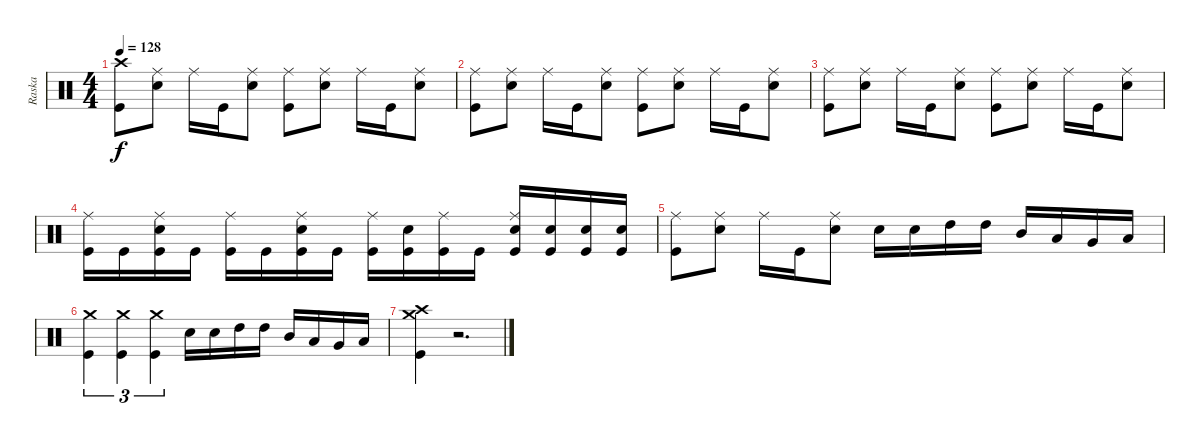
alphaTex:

\track ("Raska" "Raska") {instrument percussion}
\staff {score}
\articulation defaults
\ts (4 4)
\tempo 128
\clef neutral
\ks c
("Crash high (hit)" "Kick (hit)").8{dy f} ("Ride (middle)" "Electric Snare (hit)").8 "Ride (middle)".16 "Kick (hit)".16 ("Ride (middle)" "Electric Snare (hit)").8 ("Ride (middle)" "Kick (hit)").8 ("Ride (middle)" "Electric Snare (hit)").8 "Ride (middle)".16 "Kick (hit)".16 ("Ride (middle)" "Electric Snare (hit)").8 |
("Ride (middle)" "Kick (hit)").8 ("Ride (middle)" "Electric Snare (hit)").8 "Ride (middle)".16 "Kick (hit)".16 ("Ride (middle)" "Electric Snare (hit)").8 ("Ride (middle)" "Kick (hit)").8 ("Ride (middle)" "Electric Snare (hit)").8 "Ride (middle)".16 "Kick (hit)".16 ("Ride (middle)" "Electric Snare (hit)").8 |
("Ride (middle)" "Kick (hit)").8 ("Ride (middle)" "Electric Snare (hit)").8 "Ride (middle)".16 "Kick (hit)".16 ("Ride (middle)" "Electric Snare (hit)").8 ("Ride (middle)" "Kick (hit)").8 ("Ride (middle)" "Electric Snare (hit)").8 "Ride (middle)".16 "Kick (hit)".16 ("Ride (middle)" "Electric Snare (hit)").8 |
("Ride (middle)" "Kick (hit)").16 "Kick (hit)".16 ("Ride (middle)" "Electric Snare (hit)" "Kick (hit)").16 "Kick (hit)".16 ("Ride (middle)" "Kick (hit)").16 "Kick (hit)".16 ("Ride (middle)" "Electric Snare (hit)" "Kick (hit)").16 "Kick (hit)".16 ("Ride (middle)" "Kick (hit)").16 ("Electric Snare (hit)" "Kick (hit)").16 ("Ride (middle)" "Kick (hit)").16 "Kick (hit)".16 ("Ride (middle)" "Electric Snare (hit)" "Kick (hit)").16 ("Electric Snare (hit)" "Kick (hit)").16 ("Electric Snare (hit)" "Kick (hit)").16 ("Electric Snare (hit)" "Kick (hit)").16 |
("Ride (middle)" "Kick (hit)").8 ("Ride (middle)" "Electric Snare (hit)").8 "Ride (middle)".16 "Kick (hit)".16 ("Ride (middle)" "Electric Snare (hit)").8 "Electric Snare (hit)".16 "Electric Snare (hit)".16 "High Tom (hit)".16 "High Tom (hit)".16 "Mid Tom (hit)".16 "Low Tom (hit)".16 "Very Low Tom (hit)".16 "Low Floor Tom (hit)".16 |
("Crash medium (hit)" "Kick (hit)").4{tu (3 2)} ("Crash medium (hit)" "Kick (hit)").4{tu (3 2)} ("Crash medium (hit)" "Kick (hit)").4{tu (3 2)} "Electric Snare (hit)".16 "Electric Snare (hit)".16 "High Tom (hit)".16 "High Tom (hit)".16 "Mid Tom (hit)".16 "Low Tom (hit)".16 "Very Low Tom (hit)".16 "Low Floor Tom (hit)".16 |
("Crash high (hit)" "Crash medium (hit)" "Kick (hit)").4 r.2{d}
